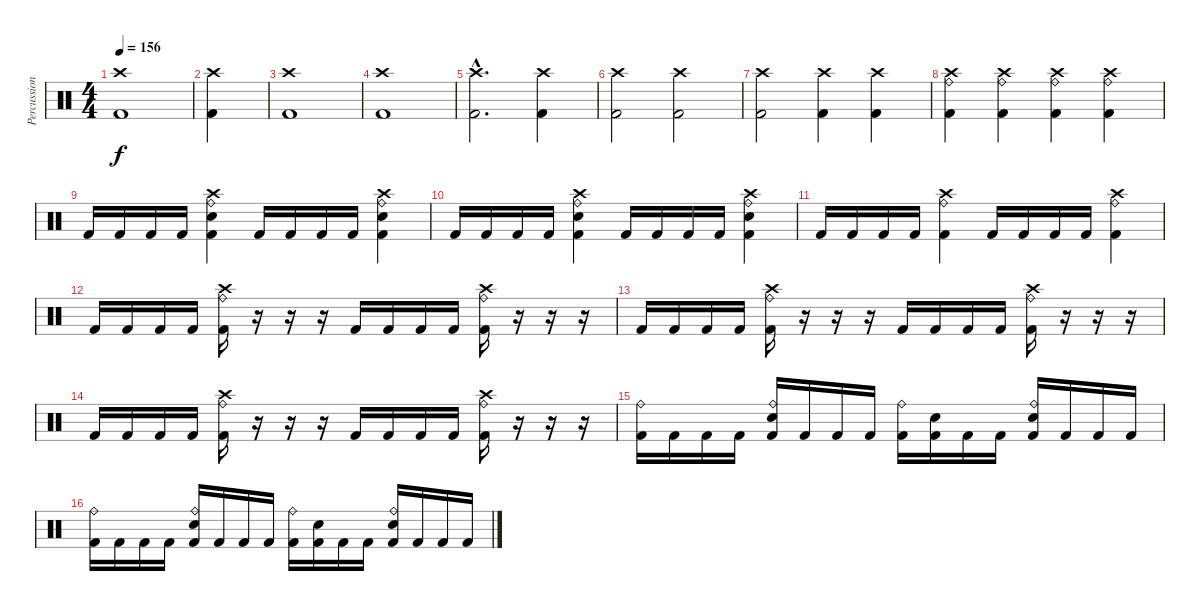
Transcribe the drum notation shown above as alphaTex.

\track ("Percussion" "Percussion") {instrument percussion}
\staff {score}
\articulation defaults
\ts (4 4)
\tempo 156
\clef neutral
\ks c
("Crash high (hit)" "Kick (hit) 2").1{dy f} |
("Crash high (hit)" "Kick (hit) 2").4 |
("Crash high (hit)" "Kick (hit) 2").1 |
("Crash high (hit)" "Kick (hit) 2").1 |
("Crash high (hit)"{hac} "Kick (hit) 2"{hac}).2{d} ("Crash high (hit)" "Kick (hit) 2").4 |
("Crash high (hit)" "Kick (hit) 2").2 ("Crash high (hit)" "Kick (hit) 2").2 |
("Crash high (hit)" "Kick (hit) 2").2 ("Crash high (hit)" "Kick (hit) 2").4 ("Crash high (hit)" "Kick (hit) 2").4 |
("Crash high (hit)" "Ride (bell)" "Kick (hit) 2").4 ("Crash high (hit)" "Ride (bell)" "Kick (hit) 2").4 ("Crash high (hit)" "Ride (bell)" "Kick (hit) 2").4 ("Crash high (hit)" "Ride (bell)" "Kick (hit) 2").4 |
"Kick (hit) 2".16 "Kick (hit) 2".16 "Kick (hit) 2".16 "Kick (hit) 2".16 ("Electric Snare (hit)" "Crash high (hit)" "Ride (bell)" "Kick (hit) 2").4 "Kick (hit) 2".16 "Kick (hit) 2".16 "Kick (hit) 2".16 "Kick (hit) 2".16 ("Electric Snare (hit)" "Crash high (hit)" "Ride (bell)" "Kick (hit) 2").4 |
"Kick (hit) 2".16 "Kick (hit) 2".16 "Kick (hit) 2".16 "Kick (hit) 2".16 ("Electric Snare (hit)" "Crash high (hit)" "Ride (bell)" "Kick (hit) 2").4 "Kick (hit) 2".16 "Kick (hit) 2".16 "Kick (hit) 2".16 "Kick (hit) 2".16 ("Electric Snare (hit)" "Crash high (hit)" "Ride (bell)" "Kick (hit) 2").4 |
"Kick (hit) 2".16 "Kick (hit) 2".16 "Kick (hit) 2".16 "Kick (hit) 2".16 ("Crash high (hit)" "Ride (bell)" "Kick (hit) 2").4 "Kick (hit) 2".16 "Kick (hit) 2".16 "Kick (hit) 2".16 "Kick (hit) 2".16 ("Crash high (hit)" "Ride (bell)" "Kick (hit) 2").4 |
"Kick (hit) 2".16 "Kick (hit) 2".16 "Kick (hit) 2".16 "Kick (hit) 2".16 ("Crash high (hit)" "Ride (bell)" "Kick (hit) 2").16 r.16 r.16 r.16 "Kick (hit) 2".16 "Kick (hit) 2".16 "Kick (hit) 2".16 "Kick (hit) 2".16 ("Crash high (hit)" "Ride (bell)" "Kick (hit) 2").16 r.16 r.16 r.16 |
"Kick (hit) 2".16 "Kick (hit) 2".16 "Kick (hit) 2".16 "Kick (hit) 2".16 ("Crash high (hit)" "Ride (bell)" "Kick (hit) 2").16 r.16 r.16 r.16 "Kick (hit) 2".16 "Kick (hit) 2".16 "Kick (hit) 2".16 "Kick (hit) 2".16 ("Crash high (hit)" "Ride (bell)" "Kick (hit) 2").16 r.16 r.16 r.16 |
"Kick (hit) 2".16 "Kick (hit) 2".16 "Kick (hit) 2".16 "Kick (hit) 2".16 ("Crash high (hit)" "Ride (bell)" "Kick (hit) 2").16 r.16 r.16 r.16 "Kick (hit) 2".16 "Kick (hit) 2".16 "Kick (hit) 2".16 "Kick (hit) 2".16 ("Crash high (hit)" "Ride (bell)" "Kick (hit) 2").16 r.16 r.16 r.16 |
("Ride (bell)" "Kick (hit) 2").16 "Kick (hit) 2".16 "Kick (hit) 2".16 "Kick (hit) 2".16 ("Electric Snare (hit)" "Ride (bell)" "Kick (hit) 2").16 "Kick (hit) 2".16 "Kick (hit) 2".16 "Kick (hit) 2".16 ("Ride (bell)" "Kick (hit) 2").16 ("Electric Snare (hit)" "Kick (hit) 2").16 "Kick (hit) 2".16 "Kick (hit) 2".16 ("Electric Snare (hit)" "Ride (bell)" "Kick (hit) 2").16 "Kick (hit) 2".16 "Kick (hit) 2".16 "Kick (hit) 2".16 |
("Ride (bell)" "Kick (hit) 2").16 "Kick (hit) 2".16 "Kick (hit) 2".16 "Kick (hit) 2".16 ("Electric Snare (hit)" "Ride (bell)" "Kick (hit) 2").16 "Kick (hit) 2".16 "Kick (hit) 2".16 "Kick (hit) 2".16 ("Ride (bell)" "Kick (hit) 2").16 ("Electric Snare (hit)" "Kick (hit) 2").16 "Kick (hit) 2".16 "Kick (hit) 2".16 ("Electric Snare (hit)" "Ride (bell)" "Kick (hit) 2").16 "Kick (hit) 2".16 "Kick (hit) 2".16 "Kick (hit) 2".16
